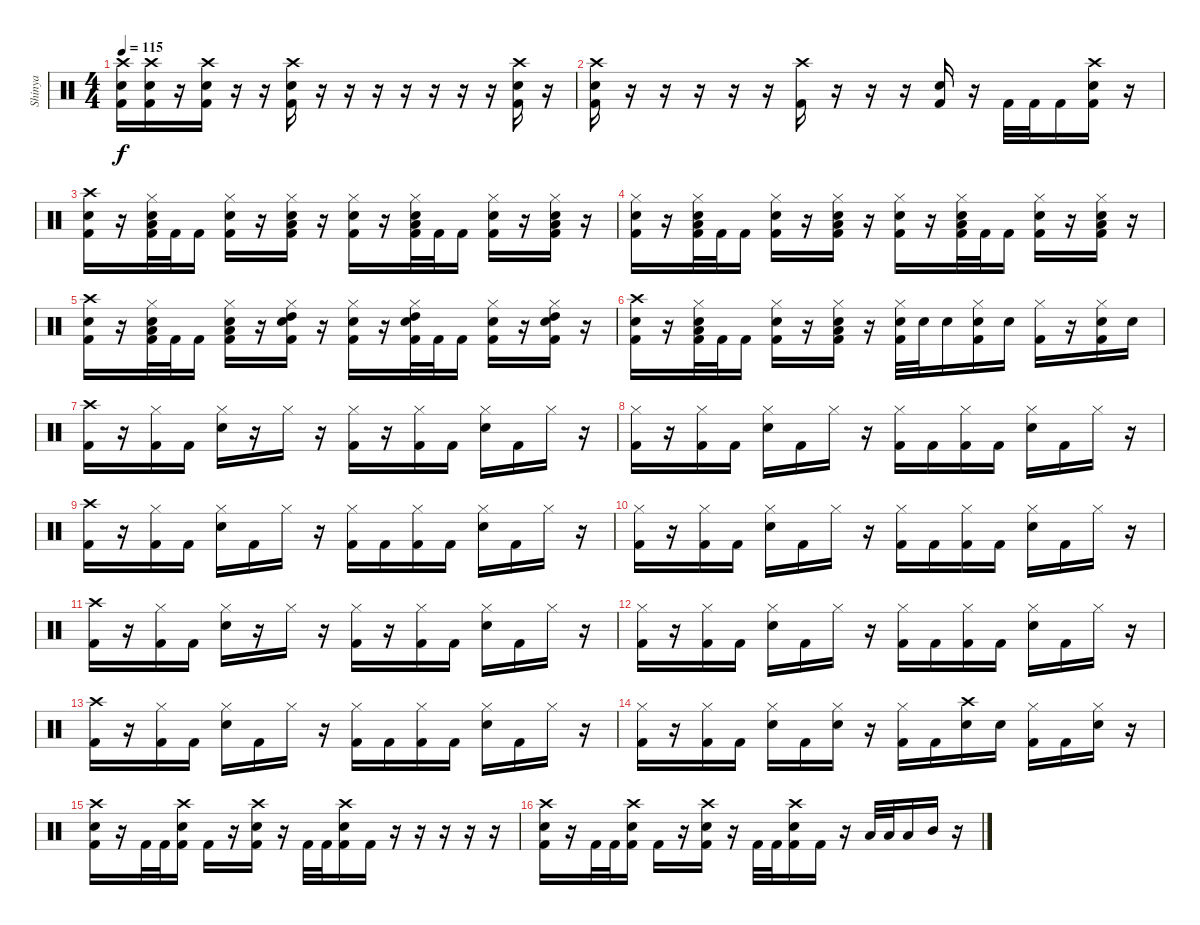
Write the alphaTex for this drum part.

\track ("Shinya" "Shinya") {instrument percussion}
\staff {score}
\articulation defaults
\ts (4 4)
\tempo 115
\clef neutral
\ks c
("Crash high (hit)" "Electric Snare (hit)" "Kick (hit) 2").16{dy f} ("Crash high (hit)" "Electric Snare (hit)" "Kick (hit) 2").16 r.16 ("Crash high (hit)" "Electric Snare (hit)" "Kick (hit) 2").16 r.16 r.16 ("Crash high (hit)" "Electric Snare (hit)" "Kick (hit) 2").16 r.16 r.16 r.16 r.16 r.16 r.16 r.16 ("Crash high (hit)" "Electric Snare (hit)" "Kick (hit) 2").16 r.16 |
("Crash high (hit)" "Electric Snare (hit)" "Kick (hit) 2").16 r.16 r.16 r.16 r.16 r.16 ("Crash high (hit)" "Kick (hit) 2").16 r.16 r.16 r.16 ("Electric Snare (hit)" "Kick (hit) 2").16 r.16 "Kick (hit) 2".32 "Kick (hit) 2".32 "Kick (hit) 2".16 ("Crash high (hit)" "Electric Snare (hit)" "Kick (hit) 2").16 r.16 |
("Crash high (hit)" "Electric Snare (hit)" "Kick (hit) 2").16 r.16 ("Hi-Hat (closed)" "Electric Snare (hit)" "Low Tom (hit)" "Kick (hit) 2").32 "Kick (hit) 2".32 "Kick (hit) 2".16 ("Hi-Hat (closed)" "Electric Snare (hit)" "Kick (hit) 2").16 r.16 ("Hi-Hat (closed)" "Electric Snare (hit)" "Low Tom (hit)" "Kick (hit) 2").16 r.16 ("Hi-Hat (closed)" "Electric Snare (hit)" "Kick (hit) 2").16 r.16 ("Hi-Hat (closed)" "Electric Snare (hit)" "Low Tom (hit)" "Kick (hit) 2").32 "Kick (hit) 2".32 "Kick (hit) 2".16 ("Hi-Hat (closed)" "Electric Snare (hit)" "Kick (hit) 2").16 r.16 ("Hi-Hat (closed)" "Electric Snare (hit)" "Low Tom (hit)" "Kick (hit) 2").16 r.16 |
("Hi-Hat (closed)" "Electric Snare (hit)" "Kick (hit) 2").16 r.16 ("Hi-Hat (closed)" "Electric Snare (hit)" "Low Tom (hit)" "Kick (hit) 2").32 "Kick (hit) 2".32 "Kick (hit) 2".16 ("Hi-Hat (closed)" "Electric Snare (hit)" "Kick (hit) 2").16 r.16 ("Hi-Hat (closed)" "Electric Snare (hit)" "Low Tom (hit)" "Kick (hit) 2").16 r.16 ("Hi-Hat (closed)" "Electric Snare (hit)" "Kick (hit) 2").16 r.16 ("Hi-Hat (closed)" "Electric Snare (hit)" "Low Tom (hit)" "Kick (hit) 2").32 "Kick (hit) 2".32 "Kick (hit) 2".16 ("Hi-Hat (closed)" "Electric Snare (hit)" "Kick (hit) 2").16 r.16 ("Hi-Hat (closed)" "Electric Snare (hit)" "Low Tom (hit)" "Kick (hit) 2").16 r.16 |
("Crash high (hit)" "Electric Snare (hit)" "Kick (hit) 2").16 r.16 ("Hi-Hat (closed)" "Electric Snare (hit)" "Low Tom (hit)" "Kick (hit) 2").32 "Kick (hit) 2".32 "Kick (hit) 2".16 ("Hi-Hat (closed)" "Electric Snare (hit)" "Low Tom (hit)" "Kick (hit) 2").16 r.16 ("Hi-Hat (closed)" "Electric Snare (hit)" "High Tom (hit)" "Kick (hit) 2").16 r.16 ("Hi-Hat (closed)" "Electric Snare (hit)" "Kick (hit) 2").16 r.16 ("Hi-Hat (closed)" "Electric Snare (hit)" "High Tom (hit)" "Kick (hit) 2").32 "Kick (hit) 2".32 "Kick (hit) 2".16 ("Hi-Hat (closed)" "Electric Snare (hit)" "Kick (hit) 2").16 r.16 ("Hi-Hat (closed)" "Electric Snare (hit)" "High Tom (hit)" "Kick (hit) 2").16 r.16 |
("Crash high (hit)" "Electric Snare (hit)" "Kick (hit) 2").16 r.16 ("Hi-Hat (closed)" "Electric Snare (hit)" "Low Tom (hit)" "Kick (hit) 2").32 "Kick (hit) 2".32 "Kick (hit) 2".16 ("Hi-Hat (closed)" "Electric Snare (hit)" "Kick (hit) 2").16 r.16 ("Hi-Hat (closed)" "Low Tom (hit)" "Electric Snare (hit)" "Kick (hit) 2").16 r.16 ("Hi-Hat (closed)" "Electric Snare (hit)" "Kick (hit) 2").32 "Electric Snare (hit)".32 "Electric Snare (hit)".16 ("Hi-Hat (closed)" "Electric Snare (hit)" "Kick (hit) 2").16 "Electric Snare (hit)".16 ("Hi-Hat (closed)" "Kick (hit) 2").16 r.16 ("Hi-Hat (closed)" "Electric Snare (hit)" "Kick (hit) 2").16 "Electric Snare (hit)".16 |
("Crash high (hit)" "Kick (hit) 2").16 r.16 ("Hi-Hat (closed)" "Kick (hit) 2").16 "Kick (hit) 2".16 ("Hi-Hat (closed)" "Electric Snare (hit)").16 r.16 "Hi-Hat (closed)".16 r.16 ("Hi-Hat (closed)" "Kick (hit) 2").16 r.16 ("Hi-Hat (closed)" "Kick (hit) 2").16 "Kick (hit) 2".16 ("Hi-Hat (closed)" "Electric Snare (hit)").16 "Kick (hit) 2".16 "Hi-Hat (closed)".16 r.16 |
("Hi-Hat (closed)" "Kick (hit) 2").16 r.16 ("Hi-Hat (closed)" "Kick (hit) 2").16 "Kick (hit) 2".16 ("Hi-Hat (closed)" "Electric Snare (hit)").16 "Kick (hit) 2".16 "Hi-Hat (closed)".16 r.16 ("Hi-Hat (closed)" "Kick (hit) 2").16 "Kick (hit) 2".16 ("Hi-Hat (closed)" "Kick (hit) 2").16 "Kick (hit) 2".16 ("Hi-Hat (closed)" "Electric Snare (hit)").16 "Kick (hit) 2".16 "Hi-Hat (closed)".16 r.16 |
("Crash high (hit)" "Kick (hit) 2").16 r.16 ("Hi-Hat (closed)" "Kick (hit) 2").16 "Kick (hit) 2".16 ("Hi-Hat (closed)" "Electric Snare (hit)").16 "Kick (hit) 2".16 "Hi-Hat (closed)".16 r.16 ("Hi-Hat (closed)" "Kick (hit) 2").16 "Kick (hit) 2".16 ("Hi-Hat (closed)" "Kick (hit) 2").16 "Kick (hit) 2".16 ("Hi-Hat (closed)" "Electric Snare (hit)").16 "Kick (hit) 2".16 "Hi-Hat (closed)".16 r.16 |
("Hi-Hat (closed)" "Kick (hit) 2").16 r.16 ("Hi-Hat (closed)" "Kick (hit) 2").16 "Kick (hit) 2".16 ("Hi-Hat (closed)" "Electric Snare (hit)").16 "Kick (hit) 2".16 "Hi-Hat (closed)".16 r.16 ("Hi-Hat (closed)" "Kick (hit) 2").16 "Kick (hit) 2".16 ("Hi-Hat (closed)" "Kick (hit) 2").16 "Kick (hit) 2".16 ("Hi-Hat (closed)" "Electric Snare (hit)").16 "Kick (hit) 2".16 "Hi-Hat (closed)".16 r.16 |
("Crash high (hit)" "Kick (hit) 2").16 r.16 ("Hi-Hat (closed)" "Kick (hit) 2").16 "Kick (hit) 2".16 ("Hi-Hat (closed)" "Electric Snare (hit)").16 r.16 "Hi-Hat (closed)".16 r.16 ("Hi-Hat (closed)" "Kick (hit) 2").16 r.16 ("Hi-Hat (closed)" "Kick (hit) 2").16 "Kick (hit) 2".16 ("Hi-Hat (closed)" "Electric Snare (hit)").16 "Kick (hit) 2".16 "Hi-Hat (closed)".16 r.16 |
("Hi-Hat (closed)" "Kick (hit) 2").16 r.16 ("Hi-Hat (closed)" "Kick (hit) 2").16 "Kick (hit) 2".16 ("Hi-Hat (closed)" "Electric Snare (hit)").16 "Kick (hit) 2".16 "Hi-Hat (closed)".16 r.16 ("Hi-Hat (closed)" "Kick (hit) 2").16 "Kick (hit) 2".16 ("Hi-Hat (closed)" "Kick (hit) 2").16 "Kick (hit) 2".16 ("Hi-Hat (closed)" "Electric Snare (hit)").16 "Kick (hit) 2".16 "Hi-Hat (closed)".16 r.16 |
("Crash high (hit)" "Kick (hit) 2").16 r.16 ("Hi-Hat (closed)" "Kick (hit) 2").16 "Kick (hit) 2".16 ("Hi-Hat (closed)" "Electric Snare (hit)").16 "Kick (hit) 2".16 "Hi-Hat (closed)".16 r.16 ("Hi-Hat (closed)" "Kick (hit) 2").16 "Kick (hit) 2".16 ("Hi-Hat (closed)" "Kick (hit) 2").16 "Kick (hit) 2".16 ("Hi-Hat (closed)" "Electric Snare (hit)").16 "Kick (hit) 2".16 "Hi-Hat (closed)".16 r.16 |
("Hi-Hat (closed)" "Kick (hit) 2").16 r.16 ("Hi-Hat (closed)" "Kick (hit) 2").16 "Kick (hit) 2".16 ("Hi-Hat (closed)" "Electric Snare (hit)").16 "Kick (hit) 2".16 ("Hi-Hat (closed)" "Electric Snare (hit)").16 r.16 ("Hi-Hat (closed)" "Kick (hit) 2").16 "Kick (hit) 2".16 ("Crash high (hit)" "Electric Snare (hit)").16 "Electric Snare (hit)".16 ("Hi-Hat (closed)" "Kick (hit) 2").16 "Kick (hit) 2".16 ("Hi-Hat (closed)" "Electric Snare (hit)").16 r.16 |
("Crash high (hit)" "Electric Snare (hit)" "Kick (hit) 2").16 r.16 "Kick (hit) 2".32 "Kick (hit) 2".32 ("Crash high (hit)" "Electric Snare (hit)" "Kick (hit) 2").16 "Kick (hit) 2".16 r.16 ("Crash high (hit)" "Electric Snare (hit)" "Kick (hit) 2").16 r.16 "Kick (hit) 2".32 "Kick (hit) 2".32 ("Crash high (hit)" "Electric Snare (hit)" "Kick (hit) 2").16 "Kick (hit) 2".16 r.16 r.16 r.16 r.16 r.16 |
("Crash high (hit)" "Electric Snare (hit)" "Kick (hit) 2").16 r.16 "Kick (hit) 2".32 "Kick (hit) 2".32 ("Crash high (hit)" "Electric Snare (hit)" "Kick (hit) 2").16 "Kick (hit) 2".16 r.16 ("Crash high (hit)" "Electric Snare (hit)" "Kick (hit) 2").16 r.16 "Kick (hit) 2".32 "Kick (hit) 2".32 ("Crash high (hit)" "Electric Snare (hit)" "Kick (hit) 2").16 "Kick (hit) 2".16 r.16 "Low Tom (hit)".32 "Low Tom (hit)".32 "Low Tom (hit)".16 "Mid Tom (hit)".16 r.16
